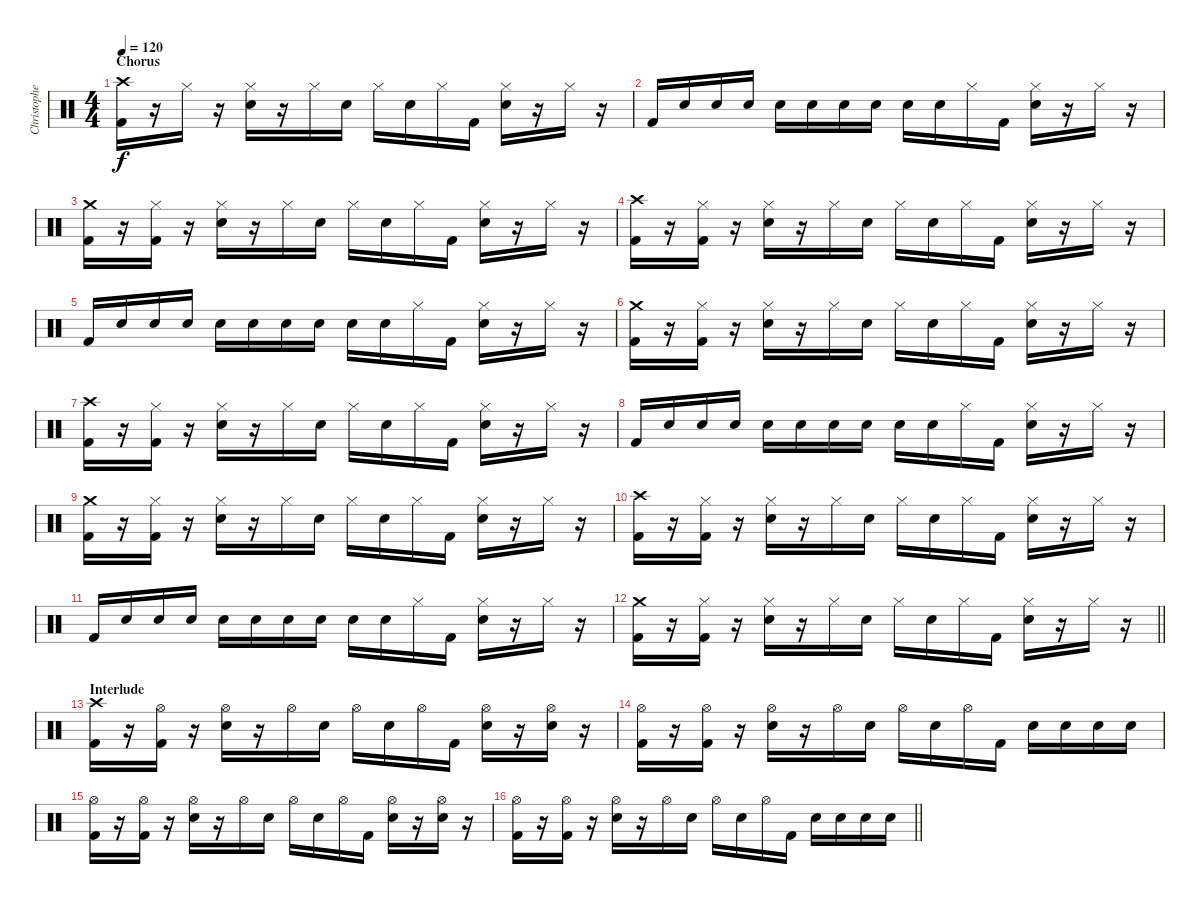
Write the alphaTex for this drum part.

\track ("Christopher - Drums" "Christophe") {instrument percussion}
\staff {score}
\articulation defaults
\ts (4 4)
\section ("" "Chorus")
\tempo 120
\clef neutral
\ks c
("Crash high (hit)" "Kick (hit) 2").16{dy f} r.16 "Hi-Hat (closed)".16 r.16 ("Hi-Hat (closed)" "Electric Snare (hit)").16 r.16 "Hi-Hat (closed)".16 "Electric Snare (hit)".16 "Hi-Hat (closed)".16 "Electric Snare (hit)".16 "Hi-Hat (closed)".16 "Kick (hit) 2".16 ("Hi-Hat (closed)" "Electric Snare (hit)").16 r.16 "Hi-Hat (closed)".16 r.16 |
"Kick (hit) 2".16 "Electric Snare (hit)".16 "Electric Snare (hit)".16 "Electric Snare (hit)".16 "Electric Snare (hit)".16 "Electric Snare (hit)".16 "Electric Snare (hit)".16 "Electric Snare (hit)".16 "Electric Snare (hit)".16 "Electric Snare (hit)".16 "Hi-Hat (closed)".16 "Kick (hit) 2".16 ("Hi-Hat (closed)" "Electric Snare (hit)").16 r.16 "Hi-Hat (closed)".16 r.16 |
("Crash medium (hit)" "Kick (hit) 2").16 r.16 ("Hi-Hat (closed)" "Kick (hit) 2").16 r.16 ("Hi-Hat (closed)" "Electric Snare (hit)").16 r.16 "Hi-Hat (closed)".16 "Electric Snare (hit)".16 "Hi-Hat (closed)".16 "Electric Snare (hit)".16 "Hi-Hat (closed)".16 "Kick (hit) 2".16 ("Hi-Hat (closed)" "Electric Snare (hit)").16 r.16 "Hi-Hat (closed)".16 r.16 |
("Crash high (hit)" "Kick (hit) 2").16 r.16 ("Hi-Hat (closed)" "Kick (hit) 2").16 r.16 ("Hi-Hat (closed)" "Electric Snare (hit)").16 r.16 "Hi-Hat (closed)".16 "Electric Snare (hit)".16 "Hi-Hat (closed)".16 "Electric Snare (hit)".16 "Hi-Hat (closed)".16 "Kick (hit) 2".16 ("Hi-Hat (closed)" "Electric Snare (hit)").16 r.16 "Hi-Hat (closed)".16 r.16 |
"Kick (hit) 2".16 "Electric Snare (hit)".16 "Electric Snare (hit)".16 "Electric Snare (hit)".16 "Electric Snare (hit)".16 "Electric Snare (hit)".16 "Electric Snare (hit)".16 "Electric Snare (hit)".16 "Electric Snare (hit)".16 "Electric Snare (hit)".16 "Hi-Hat (closed)".16 "Kick (hit) 2".16 ("Hi-Hat (closed)" "Electric Snare (hit)").16 r.16 "Hi-Hat (closed)".16 r.16 |
("Crash medium (hit)" "Kick (hit) 2").16 r.16 ("Hi-Hat (closed)" "Kick (hit) 2").16 r.16 ("Hi-Hat (closed)" "Electric Snare (hit)").16 r.16 "Hi-Hat (closed)".16 "Electric Snare (hit)".16 "Hi-Hat (closed)".16 "Electric Snare (hit)".16 "Hi-Hat (closed)".16 "Kick (hit) 2".16 ("Hi-Hat (closed)" "Electric Snare (hit)").16 r.16 "Hi-Hat (closed)".16 r.16 |
("Crash high (hit)" "Kick (hit) 2").16 r.16 ("Hi-Hat (closed)" "Kick (hit) 2").16 r.16 ("Hi-Hat (closed)" "Electric Snare (hit)").16 r.16 "Hi-Hat (closed)".16 "Electric Snare (hit)".16 "Hi-Hat (closed)".16 "Electric Snare (hit)".16 "Hi-Hat (closed)".16 "Kick (hit) 2".16 ("Hi-Hat (closed)" "Electric Snare (hit)").16 r.16 "Hi-Hat (closed)".16 r.16 |
"Kick (hit) 2".16 "Electric Snare (hit)".16 "Electric Snare (hit)".16 "Electric Snare (hit)".16 "Electric Snare (hit)".16 "Electric Snare (hit)".16 "Electric Snare (hit)".16 "Electric Snare (hit)".16 "Electric Snare (hit)".16 "Electric Snare (hit)".16 "Hi-Hat (closed)".16 "Kick (hit) 2".16 ("Hi-Hat (closed)" "Electric Snare (hit)").16 r.16 "Hi-Hat (closed)".16 r.16 |
("Crash medium (hit)" "Kick (hit) 2").16 r.16 ("Hi-Hat (closed)" "Kick (hit) 2").16 r.16 ("Hi-Hat (closed)" "Electric Snare (hit)").16 r.16 "Hi-Hat (closed)".16 "Electric Snare (hit)".16 "Hi-Hat (closed)".16 "Electric Snare (hit)".16 "Hi-Hat (closed)".16 "Kick (hit) 2".16 ("Hi-Hat (closed)" "Electric Snare (hit)").16 r.16 "Hi-Hat (closed)".16 r.16 |
("Crash high (hit)" "Kick (hit) 2").16 r.16 ("Hi-Hat (closed)" "Kick (hit) 2").16 r.16 ("Hi-Hat (closed)" "Electric Snare (hit)").16 r.16 "Hi-Hat (closed)".16 "Electric Snare (hit)".16 "Hi-Hat (closed)".16 "Electric Snare (hit)".16 "Hi-Hat (closed)".16 "Kick (hit) 2".16 ("Hi-Hat (closed)" "Electric Snare (hit)").16 r.16 "Hi-Hat (closed)".16 r.16 |
"Kick (hit) 2".16 "Electric Snare (hit)".16 "Electric Snare (hit)".16 "Electric Snare (hit)".16 "Electric Snare (hit)".16 "Electric Snare (hit)".16 "Electric Snare (hit)".16 "Electric Snare (hit)".16 "Electric Snare (hit)".16 "Electric Snare (hit)".16 "Hi-Hat (closed)".16 "Kick (hit) 2".16 ("Hi-Hat (closed)" "Electric Snare (hit)").16 r.16 "Hi-Hat (closed)".16 r.16 |
\barLineRight lightlight
("Crash medium (hit)" "Kick (hit) 2").16 r.16 ("Hi-Hat (closed)" "Kick (hit) 2").16 r.16 ("Hi-Hat (closed)" "Electric Snare (hit)").16 r.16 "Hi-Hat (closed)".16 "Electric Snare (hit)".16 "Hi-Hat (closed)".16 "Electric Snare (hit)".16 "Hi-Hat (closed)".16 "Kick (hit) 2".16 ("Hi-Hat (closed)" "Electric Snare (hit)").16 r.16 "Hi-Hat (closed)".16 r.16 |
\section ("" "Interlude")
("Crash high (hit)" "Kick (hit) 2").16 r.16 ("Hi-Hat (open)" "Kick (hit) 2").16 r.16 ("Hi-Hat (open)" "Electric Snare (hit)").16 r.16 "Hi-Hat (open)".16 "Electric Snare (hit)".16 "Hi-Hat (open)".16 "Electric Snare (hit)".16 "Hi-Hat (open)".16 "Kick (hit) 2".16 ("Hi-Hat (open)" "Electric Snare (hit)").16 r.16 ("Hi-Hat (open)" "Electric Snare (hit)").16 r.16 |
("Hi-Hat (open)" "Kick (hit) 2").16 r.16 ("Hi-Hat (open)" "Kick (hit) 2").16 r.16 ("Hi-Hat (open)" "Electric Snare (hit)").16 r.16 "Hi-Hat (open)".16 "Electric Snare (hit)".16 "Hi-Hat (open)".16 "Electric Snare (hit)".16 "Hi-Hat (open)".16 "Kick (hit) 2".16 "Electric Snare (hit)".16 "Electric Snare (hit)".16 "Electric Snare (hit)".16 "Electric Snare (hit)".16 |
("Hi-Hat (open)" "Kick (hit) 2").16 r.16 ("Hi-Hat (open)" "Kick (hit) 2").16 r.16 ("Hi-Hat (open)" "Electric Snare (hit)").16 r.16 "Hi-Hat (open)".16 "Electric Snare (hit)".16 "Hi-Hat (open)".16 "Electric Snare (hit)".16 "Hi-Hat (open)".16 "Kick (hit) 2".16 ("Hi-Hat (open)" "Electric Snare (hit)").16 r.16 ("Hi-Hat (open)" "Electric Snare (hit)").16 r.16 |
\barLineRight lightlight
("Hi-Hat (open)" "Kick (hit) 2").16 r.16 ("Hi-Hat (open)" "Kick (hit) 2").16 r.16 ("Hi-Hat (open)" "Electric Snare (hit)").16 r.16 "Hi-Hat (open)".16 "Electric Snare (hit)".16 "Hi-Hat (open)".16 "Electric Snare (hit)".16 "Hi-Hat (open)".16 "Kick (hit) 2".16 "Electric Snare (hit)".16 "Electric Snare (hit)".16 "Electric Snare (hit)".16 "Electric Snare (hit)".16
